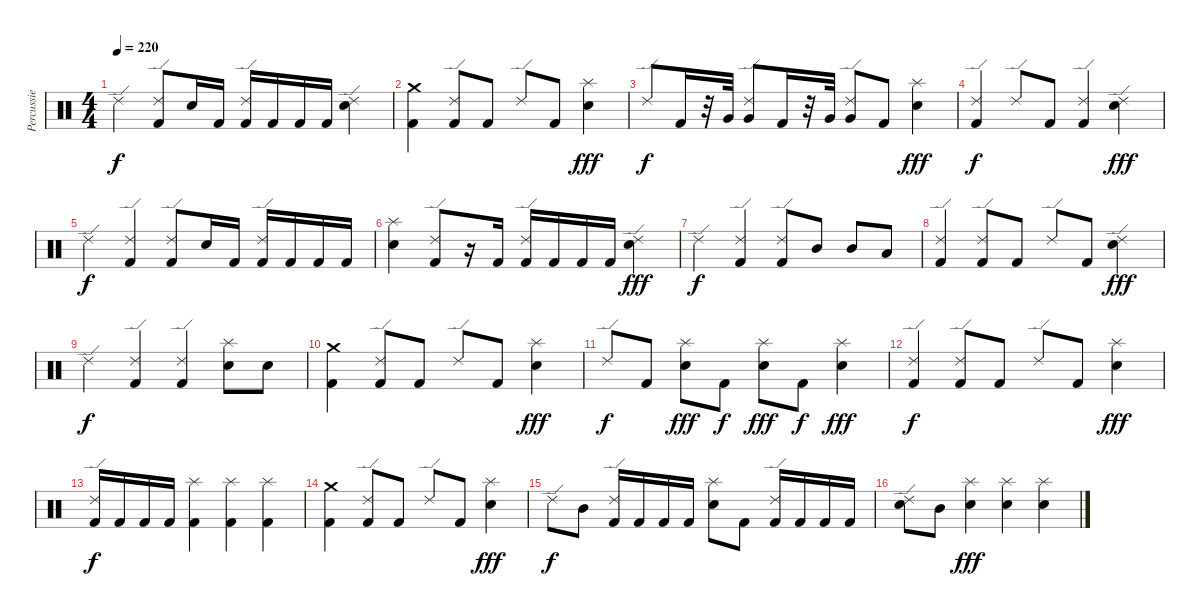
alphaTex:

\track ("Percussie" "Percussie") {instrument percussion}
\staff {score}
\articulation defaults
\ts (4 4)
\tempo 220
\clef neutral
\ks c "Ride (edge) 2".4{dy f}
("Ride (edge) 2" "Kick (hit) 2").8 "Electric Snare (hit)".16 "Kick (hit) 2".16 ("Ride (edge) 2" "Kick (hit) 2").16 "Kick (hit) 2".16 "Kick (hit) 2".16 "Kick (hit) 2".16 ("Ride (edge) 2" "Electric Snare (hit)").4 |
("Crash medium (hit)" "Kick (hit) 2").4 ("Ride (edge) 2" "Kick (hit) 2").8 "Kick (hit) 2".8 "Ride (edge) 2".8 "Kick (hit) 2".8 ("Splash (hit)" "Electric Snare (hit)").4{dy fff} |
"Ride (edge) 2".8{dy f} "Kick (hit) 2".16 r.32 "Very Low Tom (hit)".32 ("Ride (edge) 2" "Very Low Tom (hit)").8 "Kick (hit) 2".16 r.32 "Very Low Tom (hit)".32 ("Ride (edge) 2" "Very Low Tom (hit)").8 "Kick (hit) 2".8 ("Splash (hit)" "Electric Snare (hit)").4{dy fff} |
("Ride (edge) 2" "Kick (hit) 2").4{dy f} "Ride (edge) 2".8 "Kick (hit) 2".8 ("Ride (edge) 2" "Kick (hit) 2").4 ("Ride (edge) 2" "Electric Snare (hit)").4{dy fff} |
"Ride (edge) 2".4{dy f} ("Ride (edge) 2" "Kick (hit) 2").4 ("Ride (edge) 2" "Kick (hit) 2").8 "Electric Snare (hit)".16 "Kick (hit) 2".16 ("Ride (edge) 2" "Kick (hit) 2").16 "Kick (hit) 2".16 "Kick (hit) 2".16 "Kick (hit) 2".16 |
("Splash (hit)" "Electric Snare (hit)").4 ("Ride (edge) 2" "Kick (hit) 2").8 r.16 "Kick (hit) 2".16 ("Ride (edge) 2" "Kick (hit) 2").16 "Kick (hit) 2".16 "Kick (hit) 2".16 "Kick (hit) 2".16 ("Ride (edge) 2" "Electric Snare (hit)").4{dy fff} |
"Ride (edge) 2".4{dy f} ("Ride (edge) 2" "Kick (hit) 2").4 ("Ride (edge) 2" "Kick (hit) 2").8 "Mid Tom (hit)".8 "Mid Tom (hit)".8 "Low Tom (hit)".8 |
("Ride (edge) 2" "Kick (hit) 2").4 ("Ride (edge) 2" "Kick (hit) 2").8 "Kick (hit) 2".8 "Ride (edge) 2".8 "Kick (hit) 2".8 ("Ride (edge) 2" "Electric Snare (hit)").4{dy fff} |
"Ride (edge) 2".4{dy f} ("Ride (edge) 2" "Kick (hit) 2").4 ("Ride (edge) 2" "Kick (hit) 2").4 ("Splash (hit)" "Electric Snare (hit)").8 "Electric Snare (hit)".8 |
("Crash medium (hit)" "Kick (hit) 2").4 ("Ride (edge) 2" "Kick (hit) 2").8 "Kick (hit) 2".8 "Ride (edge) 2".8 "Kick (hit) 2".8 ("Splash (hit)" "Electric Snare (hit)").4{dy fff} |
"Ride (edge) 2".8{dy f} "Kick (hit) 2".8 ("Splash (hit)" "Electric Snare (hit)").8{dy fff} "Kick (hit) 2".8{dy f} ("Splash (hit)" "Electric Snare (hit)").8{dy fff} "Kick (hit) 2".8{dy f} ("Splash (hit)" "Electric Snare (hit)").4{dy fff} |
("Ride (edge) 2" "Kick (hit) 2").4{dy f} ("Ride (edge) 2" "Kick (hit) 2").8 "Kick (hit) 2".8 "Ride (edge) 2".8 "Kick (hit) 2".8 ("Splash (hit)" "Electric Snare (hit)").4{dy fff} |
("Ride (edge) 2" "Kick (hit) 2").16{dy f} "Kick (hit) 2".16 "Kick (hit) 2".16 "Kick (hit) 2".16 ("Splash (hit)" "Kick (hit) 2").4 ("Splash (hit)" "Kick (hit) 2").4 ("Splash (hit)" "Kick (hit) 2").4 |
("Crash medium (hit)" "Kick (hit) 2").4 ("Ride (edge) 2" "Kick (hit) 2").8 "Kick (hit) 2".8 "Ride (edge) 2".8 "Kick (hit) 2".8 ("Splash (hit)" "Electric Snare (hit)").4{dy fff} |
"Ride (edge) 2".8{dy f} "Mid Tom (hit)".8 ("Ride (edge) 2" "Kick (hit) 2").16 "Kick (hit) 2".16 "Kick (hit) 2".16 "Kick (hit) 2".16 ("Splash (hit)" "Electric Snare (hit)").8 "Kick (hit) 2".8 ("Ride (edge) 2" "Kick (hit) 2").16 "Kick (hit) 2".16 "Kick (hit) 2".16 "Kick (hit) 2".16 |
("Ride (edge) 2" "Electric Snare (hit)").8 "Mid Tom (hit)".8 ("Splash (hit)" "Electric Snare (hit)").4{dy fff} ("Splash (hit)" "Electric Snare (hit)").4 ("Splash (hit)" "Electric Snare (hit)").4
